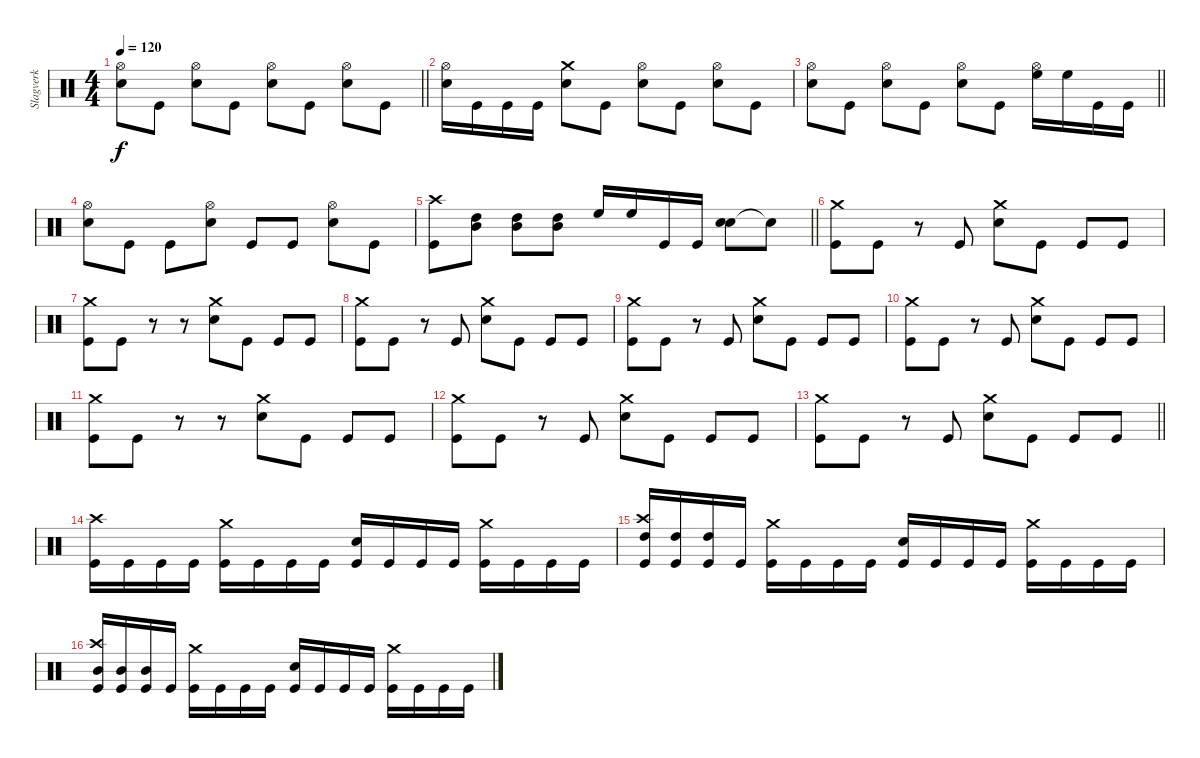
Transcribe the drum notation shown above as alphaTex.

\track ("Slagverk" "Slagverk") {instrument percussion}
\staff {score}
\articulation defaults
\ts (4 4)
\tempo 120
\clef neutral
\barLineRight lightlight
\ks c
("Hi-Hat (open)" "Electric Snare (hit)").8{dy f} "Kick (hit)".8 ("Hi-Hat (open)" "Electric Snare (hit)").8 "Kick (hit)".8 ("Hi-Hat (open)" "Electric Snare (hit)").8 "Kick (hit)".8 ("Hi-Hat (open)" "Electric Snare (hit)").8 "Kick (hit)".8 |
("Hi-Hat (open)" "Electric Snare (hit)").16 "Kick (hit)".16 "Kick (hit)".16 "Kick (hit)".16 ("Crash medium (hit)" "Electric Snare (hit)").8 "Kick (hit)".8 ("Hi-Hat (open)" "Electric Snare (hit)").8 "Kick (hit)".8 ("Hi-Hat (open)" "Electric Snare (hit)").8 "Kick (hit)".8 |
\barLineRight lightlight
("Hi-Hat (open)" "Electric Snare (hit)").8 "Kick (hit)".8 ("Hi-Hat (open)" "Electric Snare (hit)").8 "Kick (hit)".8 ("Hi-Hat (open)" "Electric Snare (hit)").8 "Kick (hit)".8 ("Hi-Hat (open)" "High Floor Tom (hit)").16 "High Floor Tom (hit)".16 "Kick (hit)".16 "Kick (hit)".16 |
("Hi-Hat (open)" "Electric Snare (hit)").8 "Kick (hit)".8 "Kick (hit)".8 ("Hi-Hat (open)" "Electric Snare (hit)").8 "Kick (hit)".8 "Kick (hit)".8 ("Hi-Hat (open)" "Electric Snare (hit)").8 "Kick (hit)".8 |
\barLineRight lightlight
("Crash high (hit)" "Kick (hit)").8 ("High Tom (hit)" "Mid Tom (hit)").8 ("High Tom (hit)" "Mid Tom (hit)").8 ("High Tom (hit)" "Mid Tom (hit)").8 "High Floor Tom (hit)".16 "High Floor Tom (hit)".16 "Kick (hit)".16 "Kick (hit)".16 ("Electric Snare (hit)" "Electric Snare (hit)").8 "Snare (hit)"{t}.8 |
("Crash medium (hit)" "Kick (hit)").8 "Kick (hit)".8 r.8 "Kick (hit)".8 ("Crash medium (hit)" "Electric Snare (hit)").8 "Kick (hit)".8 "Kick (hit)".8 "Kick (hit)".8 |
("Crash medium (hit)" "Kick (hit)").8 "Kick (hit)".8 r.8 r.8 ("Crash medium (hit)" "Electric Snare (hit)").8 "Kick (hit)".8 "Kick (hit)".8 "Kick (hit)".8 |
("Crash medium (hit)" "Kick (hit)").8 "Kick (hit)".8 r.8 "Kick (hit)".8 ("Crash medium (hit)" "Electric Snare (hit)").8 "Kick (hit)".8 "Kick (hit)".8 "Kick (hit)".8 |
("Crash medium (hit)" "Kick (hit)").8 "Kick (hit)".8 r.8 "Kick (hit)".8 ("Crash medium (hit)" "Electric Snare (hit)").8 "Kick (hit)".8 "Kick (hit)".8 "Kick (hit)".8 |
("Crash medium (hit)" "Kick (hit)").8 "Kick (hit)".8 r.8 "Kick (hit)".8 ("Crash medium (hit)" "Electric Snare (hit)").8 "Kick (hit)".8 "Kick (hit)".8 "Kick (hit)".8 |
("Crash medium (hit)" "Kick (hit)").8 "Kick (hit)".8 r.8 r.8 ("Crash medium (hit)" "Electric Snare (hit)").8 "Kick (hit)".8 "Kick (hit)".8 "Kick (hit)".8 |
("Crash medium (hit)" "Kick (hit)").8 "Kick (hit)".8 r.8 "Kick (hit)".8 ("Crash medium (hit)" "Electric Snare (hit)").8 "Kick (hit)".8 "Kick (hit)".8 "Kick (hit)".8 |
\barLineRight lightlight
("Crash medium (hit)" "Kick (hit)").8 "Kick (hit)".8 r.8 "Kick (hit)".8 ("Crash medium (hit)" "Electric Snare (hit)").8 "Kick (hit)".8 "Kick (hit)".8 "Kick (hit)".8 |
("Crash high (hit)" "Kick (hit)").16 "Kick (hit)".16 "Kick (hit)".16 "Kick (hit)".16 ("Crash medium (hit)" "Kick (hit)").16 "Kick (hit)".16 "Kick (hit)".16 "Kick (hit)".16 ("Electric Snare (hit)" "Kick (hit)").16 "Kick (hit)".16 "Kick (hit)".16 "Kick (hit)".16 ("Crash medium (hit)" "Kick (hit)").16 "Kick (hit)".16 "Kick (hit)".16 "Kick (hit)".16 |
("Crash high (hit)" "High Tom (hit)" "Kick (hit)").16 ("High Tom (hit)" "Kick (hit)").16 ("High Tom (hit)" "Kick (hit)").16 "Kick (hit)".16 ("Crash medium (hit)" "Kick (hit)").16 "Kick (hit)".16 "Kick (hit)".16 "Kick (hit)".16 ("Electric Snare (hit)" "Kick (hit)").16 "Kick (hit)".16 "Kick (hit)".16 "Kick (hit)".16 ("Crash medium (hit)" "Kick (hit)").16 "Kick (hit)".16 "Kick (hit)".16 "Kick (hit)".16 |
("Crash high (hit)" "Mid Tom (hit)" "Kick (hit)").16 ("Mid Tom (hit)" "Kick (hit)").16 ("Mid Tom (hit)" "Kick (hit)").16 "Kick (hit)".16 ("Crash medium (hit)" "Kick (hit)").16 "Kick (hit)".16 "Kick (hit)".16 "Kick (hit)".16 ("Electric Snare (hit)" "Kick (hit)").16 "Kick (hit)".16 "Kick (hit)".16 "Kick (hit)".16 ("Crash medium (hit)" "Kick (hit)").16 "Kick (hit)".16 "Kick (hit)".16 "Kick (hit)".16
